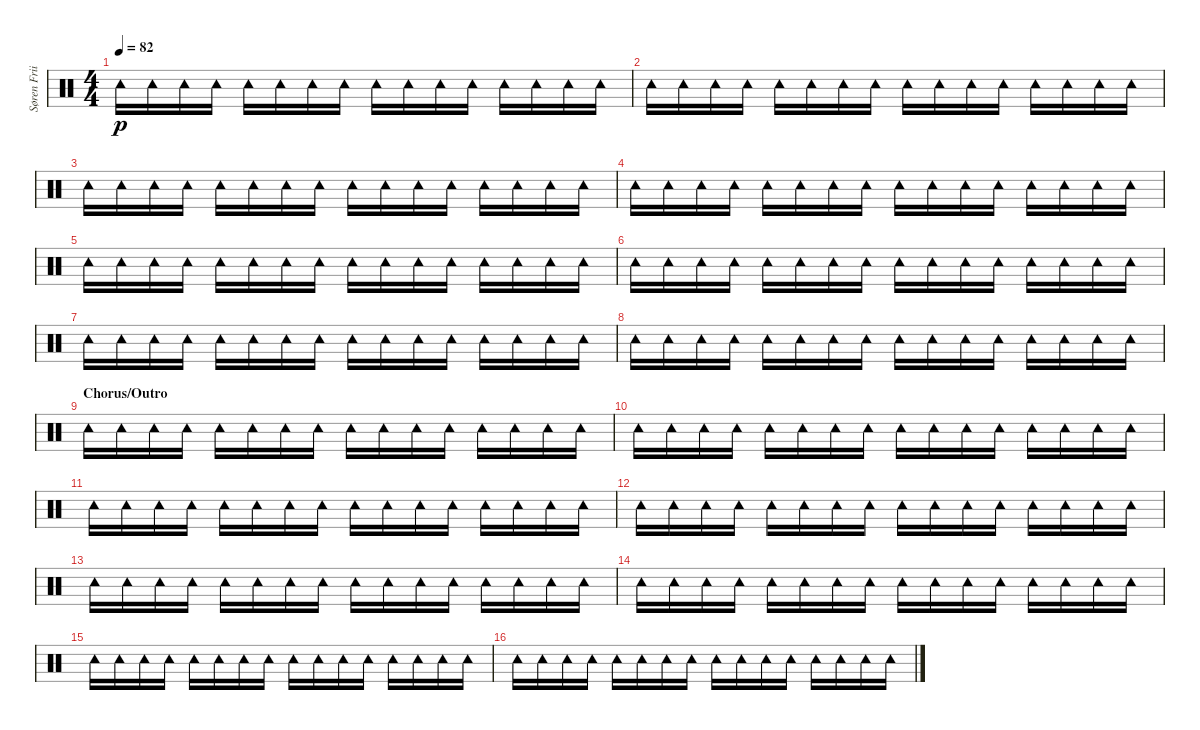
\track ("Søren Friis 2" "Søren Frii") {instrument percussion}
\staff {score}
\articulation defaults
\ts (4 4)
\tempo 82
\clef neutral
\ks c "Tambourine (hit)".16{dy p} "Tambourine (hit)".16 "Tambourine (hit)".16 "Tambourine (hit)".16 "Tambourine (hit)".16 "Tambourine (hit)".16 "Tambourine (hit)".16 "Tambourine (hit)".16 "Tambourine (hit)".16 "Tambourine (hit)".16 "Tambourine (hit)".16 "Tambourine (hit)".16 "Tambourine (hit)".16 "Tambourine (hit)".16 "Tambourine (hit)".16 "Tambourine (hit)".16
|
"Tambourine (hit)".16 "Tambourine (hit)".16 "Tambourine (hit)".16 "Tambourine (hit)".16 "Tambourine (hit)".16 "Tambourine (hit)".16 "Tambourine (hit)".16 "Tambourine (hit)".16 "Tambourine (hit)".16 "Tambourine (hit)".16 "Tambourine (hit)".16 "Tambourine (hit)".16 "Tambourine (hit)".16 "Tambourine (hit)".16 "Tambourine (hit)".16 "Tambourine (hit)".16 |
"Tambourine (hit)".16 "Tambourine (hit)".16 "Tambourine (hit)".16 "Tambourine (hit)".16 "Tambourine (hit)".16 "Tambourine (hit)".16 "Tambourine (hit)".16 "Tambourine (hit)".16 "Tambourine (hit)".16 "Tambourine (hit)".16 "Tambourine (hit)".16 "Tambourine (hit)".16 "Tambourine (hit)".16 "Tambourine (hit)".16 "Tambourine (hit)".16 "Tambourine (hit)".16 |
"Tambourine (hit)".16 "Tambourine (hit)".16 "Tambourine (hit)".16 "Tambourine (hit)".16 "Tambourine (hit)".16 "Tambourine (hit)".16 "Tambourine (hit)".16 "Tambourine (hit)".16 "Tambourine (hit)".16 "Tambourine (hit)".16 "Tambourine (hit)".16 "Tambourine (hit)".16 "Tambourine (hit)".16 "Tambourine (hit)".16 "Tambourine (hit)".16 "Tambourine (hit)".16 |
"Tambourine (hit)".16 "Tambourine (hit)".16 "Tambourine (hit)".16 "Tambourine (hit)".16 "Tambourine (hit)".16 "Tambourine (hit)".16 "Tambourine (hit)".16 "Tambourine (hit)".16 "Tambourine (hit)".16 "Tambourine (hit)".16 "Tambourine (hit)".16 "Tambourine (hit)".16 "Tambourine (hit)".16 "Tambourine (hit)".16 "Tambourine (hit)".16 "Tambourine (hit)".16 |
"Tambourine (hit)".16 "Tambourine (hit)".16 "Tambourine (hit)".16 "Tambourine (hit)".16 "Tambourine (hit)".16 "Tambourine (hit)".16 "Tambourine (hit)".16 "Tambourine (hit)".16 "Tambourine (hit)".16 "Tambourine (hit)".16 "Tambourine (hit)".16 "Tambourine (hit)".16 "Tambourine (hit)".16 "Tambourine (hit)".16 "Tambourine (hit)".16 "Tambourine (hit)".16 |
"Tambourine (hit)".16 "Tambourine (hit)".16 "Tambourine (hit)".16 "Tambourine (hit)".16 "Tambourine (hit)".16 "Tambourine (hit)".16 "Tambourine (hit)".16 "Tambourine (hit)".16 "Tambourine (hit)".16 "Tambourine (hit)".16 "Tambourine (hit)".16 "Tambourine (hit)".16 "Tambourine (hit)".16 "Tambourine (hit)".16 "Tambourine (hit)".16 "Tambourine (hit)".16 |
"Tambourine (hit)".16 "Tambourine (hit)".16 "Tambourine (hit)".16 "Tambourine (hit)".16 "Tambourine (hit)".16 "Tambourine (hit)".16 "Tambourine (hit)".16 "Tambourine (hit)".16 "Tambourine (hit)".16 "Tambourine (hit)".16 "Tambourine (hit)".16 "Tambourine (hit)".16 "Tambourine (hit)".16 "Tambourine (hit)".16 "Tambourine (hit)".16 "Tambourine (hit)".16 |
\section ("" "Chorus/Outro")
"Tambourine (hit)".16 "Tambourine (hit)".16 "Tambourine (hit)".16 "Tambourine (hit)".16 "Tambourine (hit)".16 "Tambourine (hit)".16 "Tambourine (hit)".16 "Tambourine (hit)".16 "Tambourine (hit)".16 "Tambourine (hit)".16 "Tambourine (hit)".16 "Tambourine (hit)".16 "Tambourine (hit)".16 "Tambourine (hit)".16 "Tambourine (hit)".16 "Tambourine (hit)".16 |
"Tambourine (hit)".16 "Tambourine (hit)".16 "Tambourine (hit)".16 "Tambourine (hit)".16 "Tambourine (hit)".16 "Tambourine (hit)".16 "Tambourine (hit)".16 "Tambourine (hit)".16 "Tambourine (hit)".16 "Tambourine (hit)".16 "Tambourine (hit)".16 "Tambourine (hit)".16 "Tambourine (hit)".16 "Tambourine (hit)".16 "Tambourine (hit)".16 "Tambourine (hit)".16 |
"Tambourine (hit)".16 "Tambourine (hit)".16 "Tambourine (hit)".16 "Tambourine (hit)".16 "Tambourine (hit)".16 "Tambourine (hit)".16 "Tambourine (hit)".16 "Tambourine (hit)".16 "Tambourine (hit)".16 "Tambourine (hit)".16 "Tambourine (hit)".16 "Tambourine (hit)".16 "Tambourine (hit)".16 "Tambourine (hit)".16 "Tambourine (hit)".16 "Tambourine (hit)".16 |
"Tambourine (hit)".16 "Tambourine (hit)".16 "Tambourine (hit)".16 "Tambourine (hit)".16 "Tambourine (hit)".16 "Tambourine (hit)".16 "Tambourine (hit)".16 "Tambourine (hit)".16 "Tambourine (hit)".16 "Tambourine (hit)".16 "Tambourine (hit)".16 "Tambourine (hit)".16 "Tambourine (hit)".16 "Tambourine (hit)".16 "Tambourine (hit)".16 "Tambourine (hit)".16 |
"Tambourine (hit)".16 "Tambourine (hit)".16 "Tambourine (hit)".16 "Tambourine (hit)".16 "Tambourine (hit)".16 "Tambourine (hit)".16 "Tambourine (hit)".16 "Tambourine (hit)".16 "Tambourine (hit)".16 "Tambourine (hit)".16 "Tambourine (hit)".16 "Tambourine (hit)".16 "Tambourine (hit)".16 "Tambourine (hit)".16 "Tambourine (hit)".16 "Tambourine (hit)".16 |
"Tambourine (hit)".16 "Tambourine (hit)".16 "Tambourine (hit)".16 "Tambourine (hit)".16 "Tambourine (hit)".16 "Tambourine (hit)".16 "Tambourine (hit)".16 "Tambourine (hit)".16 "Tambourine (hit)".16 "Tambourine (hit)".16 "Tambourine (hit)".16 "Tambourine (hit)".16 "Tambourine (hit)".16 "Tambourine (hit)".16 "Tambourine (hit)".16 "Tambourine (hit)".16 |
"Tambourine (hit)".16 "Tambourine (hit)".16 "Tambourine (hit)".16 "Tambourine (hit)".16 "Tambourine (hit)".16 "Tambourine (hit)".16 "Tambourine (hit)".16 "Tambourine (hit)".16 "Tambourine (hit)".16 "Tambourine (hit)".16 "Tambourine (hit)".16 "Tambourine (hit)".16 "Tambourine (hit)".16 "Tambourine (hit)".16 "Tambourine (hit)".16 "Tambourine (hit)".16 |
"Tambourine (hit)".16 "Tambourine (hit)".16 "Tambourine (hit)".16 "Tambourine (hit)".16 "Tambourine (hit)".16 "Tambourine (hit)".16 "Tambourine (hit)".16 "Tambourine (hit)".16 "Tambourine (hit)".16 "Tambourine (hit)".16 "Tambourine (hit)".16 "Tambourine (hit)".16 "Tambourine (hit)".16 "Tambourine (hit)".16 "Tambourine (hit)".16 "Tambourine (hit)".16
